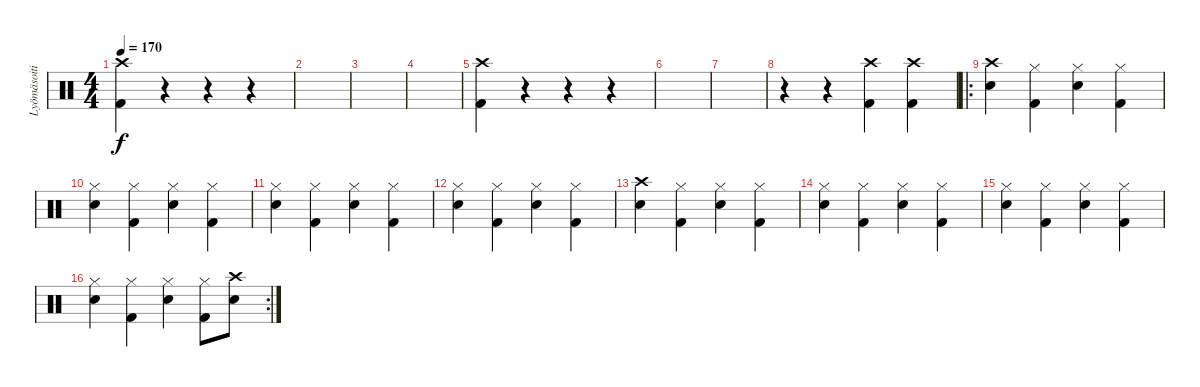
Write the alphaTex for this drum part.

\track ("Lyömäsoitin" "Lyömäsoiti") {instrument percussion}
\staff {score}
\articulation defaults
\ts (4 4)
\tempo 170
\clef neutral
\ks c
("Crash high (hit)" "Kick (hit) 2").4{dy f} r.4 r.4 r.4 |
|
|
|
("Crash high (hit)" "Kick (hit) 2").4 r.4 r.4 r.4 |
|
|
r.4 r.4 ("Crash high (hit)" "Kick (hit) 2").4 ("Crash high (hit)" "Kick (hit) 2").4 |
\ro
("Crash high (hit)" "Snare (hit) 2").4 ("Hi-Hat (closed)" "Kick (hit) 2").4 ("Hi-Hat (closed)" "Snare (hit) 2").4 ("Hi-Hat (closed)" "Kick (hit) 2").4 |
("Hi-Hat (closed)" "Snare (hit) 2").4 ("Hi-Hat (closed)" "Kick (hit) 2").4 ("Hi-Hat (closed)" "Snare (hit) 2").4 ("Hi-Hat (closed)" "Kick (hit) 2").4 |
("Hi-Hat (closed)" "Snare (hit) 2").4 ("Hi-Hat (closed)" "Kick (hit) 2").4 ("Hi-Hat (closed)" "Snare (hit) 2").4 ("Hi-Hat (closed)" "Kick (hit) 2").4 |
("Hi-Hat (closed)" "Snare (hit) 2").4 ("Hi-Hat (closed)" "Kick (hit) 2").4 ("Hi-Hat (closed)" "Snare (hit) 2").4 ("Hi-Hat (closed)" "Kick (hit) 2").4 |
("Crash high (hit)" "Snare (hit) 2").4 ("Hi-Hat (closed)" "Kick (hit) 2").4 ("Hi-Hat (closed)" "Snare (hit) 2").4 ("Hi-Hat (closed)" "Kick (hit) 2").4 |
("Hi-Hat (closed)" "Snare (hit) 2").4 ("Hi-Hat (closed)" "Kick (hit) 2").4 ("Hi-Hat (closed)" "Snare (hit) 2").4 ("Hi-Hat (closed)" "Kick (hit) 2").4 |
("Hi-Hat (closed)" "Snare (hit) 2").4 ("Hi-Hat (closed)" "Kick (hit) 2").4 ("Hi-Hat (closed)" "Snare (hit) 2").4 ("Hi-Hat (closed)" "Kick (hit) 2").4 |
\rc 2
("Hi-Hat (closed)" "Snare (hit) 2").4 ("Hi-Hat (closed)" "Kick (hit) 2").4 ("Hi-Hat (closed)" "Snare (hit) 2").4 ("Hi-Hat (closed)" "Kick (hit) 2").8 ("Crash high (hit)" "Snare (hit) 2").8
